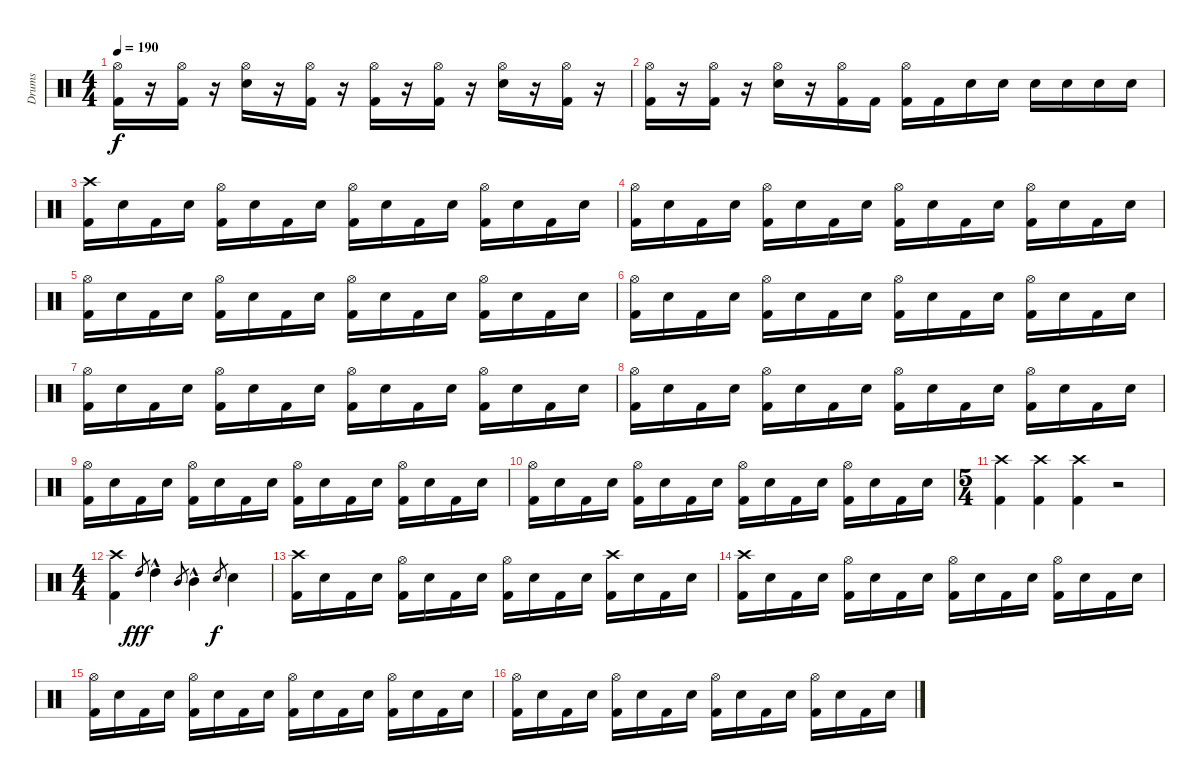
\track ("Drums" "Drums") {instrument percussion}
\staff {score}
\articulation defaults
\ts (4 4)
\tempo 190
\clef neutral
\ks aminor
("Kick (hit) 2" "Hi-Hat (open)").16{dy f} r.16 ("Kick (hit) 2" "Hi-Hat (open)").16 r.16 ("Electric Snare (hit)" "Hi-Hat (open)").16 r.16 ("Kick (hit) 2" "Hi-Hat (open)").16 r.16 ("Kick (hit) 2" "Hi-Hat (open)").16 r.16 ("Kick (hit) 2" "Hi-Hat (open)").16 r.16 ("Electric Snare (hit)" "Hi-Hat (open)").16 r.16 ("Kick (hit) 2" "Hi-Hat (open)").16 r.16 |
("Kick (hit) 2" "Hi-Hat (open)").16 r.16 ("Kick (hit) 2" "Hi-Hat (open)").16 r.16 ("Electric Snare (hit)" "Hi-Hat (open)").16 r.16 ("Kick (hit) 2" "Hi-Hat (open)").16 "Kick (hit) 2".16 ("Kick (hit) 2" "Hi-Hat (open)").16 "Kick (hit) 2".16 "Electric Snare (hit)".16 "Electric Snare (hit)".16 "Electric Snare (hit)".16 "Electric Snare (hit)".16 "Electric Snare (hit)".16 "Electric Snare (hit)".16 |
("Kick (hit) 2" "Crash high (hit)").16 "Electric Snare (hit)".16 "Kick (hit) 2".16 "Electric Snare (hit)".16 ("Kick (hit) 2" "Hi-Hat (open)").16 "Electric Snare (hit)".16 "Kick (hit) 2".16 "Electric Snare (hit)".16 ("Kick (hit) 2" "Hi-Hat (open)").16 "Electric Snare (hit)".16 "Kick (hit) 2".16 "Electric Snare (hit)".16 ("Kick (hit) 2" "Hi-Hat (open)").16 "Electric Snare (hit)".16 "Kick (hit) 2".16 "Electric Snare (hit)".16 |
("Kick (hit) 2" "Hi-Hat (open)").16 "Electric Snare (hit)".16 "Kick (hit) 2".16 "Electric Snare (hit)".16 ("Kick (hit) 2" "Hi-Hat (open)").16 "Electric Snare (hit)".16 "Kick (hit) 2".16 "Electric Snare (hit)".16 ("Kick (hit) 2" "Hi-Hat (open)").16 "Electric Snare (hit)".16 "Kick (hit) 2".16 "Electric Snare (hit)".16 ("Kick (hit) 2" "Hi-Hat (open)").16 "Electric Snare (hit)".16 "Kick (hit) 2".16 "Electric Snare (hit)".16 |
("Kick (hit) 2" "Hi-Hat (open)").16 "Electric Snare (hit)".16 "Kick (hit) 2".16 "Electric Snare (hit)".16 ("Kick (hit) 2" "Hi-Hat (open)").16 "Electric Snare (hit)".16 "Kick (hit) 2".16 "Electric Snare (hit)".16 ("Kick (hit) 2" "Hi-Hat (open)").16 "Electric Snare (hit)".16 "Kick (hit) 2".16 "Electric Snare (hit)".16 ("Kick (hit) 2" "Hi-Hat (open)").16 "Electric Snare (hit)".16 "Kick (hit) 2".16 "Electric Snare (hit)".16 |
("Kick (hit) 2" "Hi-Hat (open)").16 "Electric Snare (hit)".16 "Kick (hit) 2".16 "Electric Snare (hit)".16 ("Kick (hit) 2" "Hi-Hat (open)").16 "Electric Snare (hit)".16 "Kick (hit) 2".16 "Electric Snare (hit)".16 ("Kick (hit) 2" "Hi-Hat (open)").16 "Electric Snare (hit)".16 "Kick (hit) 2".16 "Electric Snare (hit)".16 ("Kick (hit) 2" "Hi-Hat (open)").16 "Electric Snare (hit)".16 "Kick (hit) 2".16 "Electric Snare (hit)".16 |
("Kick (hit) 2" "Hi-Hat (open)").16 "Electric Snare (hit)".16 "Kick (hit) 2".16 "Electric Snare (hit)".16 ("Kick (hit) 2" "Hi-Hat (open)").16 "Electric Snare (hit)".16 "Kick (hit) 2".16 "Electric Snare (hit)".16 ("Kick (hit) 2" "Hi-Hat (open)").16 "Electric Snare (hit)".16 "Kick (hit) 2".16 "Electric Snare (hit)".16 ("Kick (hit) 2" "Hi-Hat (open)").16 "Electric Snare (hit)".16 "Kick (hit) 2".16 "Electric Snare (hit)".16 |
("Kick (hit) 2" "Hi-Hat (open)").16 "Electric Snare (hit)".16 "Kick (hit) 2".16 "Electric Snare (hit)".16 ("Kick (hit) 2" "Hi-Hat (open)").16 "Electric Snare (hit)".16 "Kick (hit) 2".16 "Electric Snare (hit)".16 ("Kick (hit) 2" "Hi-Hat (open)").16 "Electric Snare (hit)".16 "Kick (hit) 2".16 "Electric Snare (hit)".16 ("Kick (hit) 2" "Hi-Hat (open)").16 "Electric Snare (hit)".16 "Kick (hit) 2".16 "Electric Snare (hit)".16 |
("Kick (hit) 2" "Hi-Hat (open)").16 "Electric Snare (hit)".16 "Kick (hit) 2".16 "Electric Snare (hit)".16 ("Kick (hit) 2" "Hi-Hat (open)").16 "Electric Snare (hit)".16 "Kick (hit) 2".16 "Electric Snare (hit)".16 ("Kick (hit) 2" "Hi-Hat (open)").16 "Electric Snare (hit)".16 "Kick (hit) 2".16 "Electric Snare (hit)".16 ("Kick (hit) 2" "Hi-Hat (open)").16 "Electric Snare (hit)".16 "Kick (hit) 2".16 "Electric Snare (hit)".16 |
("Kick (hit) 2" "Hi-Hat (open)").16 "Electric Snare (hit)".16 "Kick (hit) 2".16 "Electric Snare (hit)".16 ("Kick (hit) 2" "Hi-Hat (open)").16 "Electric Snare (hit)".16 "Kick (hit) 2".16 "Electric Snare (hit)".16 ("Kick (hit) 2" "Hi-Hat (open)").16 "Electric Snare (hit)".16 "Kick (hit) 2".16 "Electric Snare (hit)".16 ("Kick (hit) 2" "Hi-Hat (open)").16 "Electric Snare (hit)".16 "Kick (hit) 2".16 "Electric Snare (hit)".16 |
\ts (5 4)
("Kick (hit) 2" "Crash high (hit)").4 ("Kick (hit) 2" "Crash high (hit)").4 ("Kick (hit) 2" "Crash high (hit)").4 r.2 |
\ts (4 4)
("Kick (hit) 2" "Crash high (hit)").4 "High Tom (hit)".8{gr dy fff} "High Tom (hit)"{hac}.4 "Mid Tom (hit)".8{gr} "Mid Tom (hit)"{hac}.4 "Electric Snare (hit)".8{gr dy f} "Electric Snare (hit)".4 |
("Kick (hit) 2" "Crash high (hit)").16 "Electric Snare (hit)".16 "Kick (hit) 2".16 "Electric Snare (hit)".16 ("Kick (hit) 2" "Hi-Hat (open)").16 "Electric Snare (hit)".16 "Kick (hit) 2".16 "Electric Snare (hit)".16 ("Kick (hit) 2" "Hi-Hat (open)").16 "Electric Snare (hit)".16 "Kick (hit) 2".16 "Electric Snare (hit)".16 ("Kick (hit) 2" "Crash high (hit)").16 "Electric Snare (hit)".16 "Kick (hit) 2".16 "Electric Snare (hit)".16 |
("Kick (hit) 2" "Crash high (hit)").16 "Electric Snare (hit)".16 "Kick (hit) 2".16 "Electric Snare (hit)".16 ("Kick (hit) 2" "Hi-Hat (open)").16 "Electric Snare (hit)".16 "Kick (hit) 2".16 "Electric Snare (hit)".16 ("Kick (hit) 2" "Hi-Hat (open)").16 "Electric Snare (hit)".16 "Kick (hit) 2".16 "Electric Snare (hit)".16 ("Kick (hit) 2" "Hi-Hat (open)").16 "Electric Snare (hit)".16 "Kick (hit) 2".16 "Electric Snare (hit)".16 |
("Kick (hit) 2" "Hi-Hat (open)").16 "Electric Snare (hit)".16 "Kick (hit) 2".16 "Electric Snare (hit)".16 ("Kick (hit) 2" "Hi-Hat (open)").16 "Electric Snare (hit)".16 "Kick (hit) 2".16 "Electric Snare (hit)".16 ("Kick (hit) 2" "Hi-Hat (open)").16 "Electric Snare (hit)".16 "Kick (hit) 2".16 "Electric Snare (hit)".16 ("Kick (hit) 2" "Hi-Hat (open)").16 "Electric Snare (hit)".16 "Kick (hit) 2".16 "Electric Snare (hit)".16 |
("Kick (hit) 2" "Hi-Hat (open)").16 "Electric Snare (hit)".16 "Kick (hit) 2".16 "Electric Snare (hit)".16 ("Kick (hit) 2" "Hi-Hat (open)").16 "Electric Snare (hit)".16 "Kick (hit) 2".16 "Electric Snare (hit)".16 ("Kick (hit) 2" "Hi-Hat (open)").16 "Electric Snare (hit)".16 "Kick (hit) 2".16 "Electric Snare (hit)".16 ("Kick (hit) 2" "Hi-Hat (open)").16 "Electric Snare (hit)".16 "Kick (hit) 2".16 "Electric Snare (hit)".16
